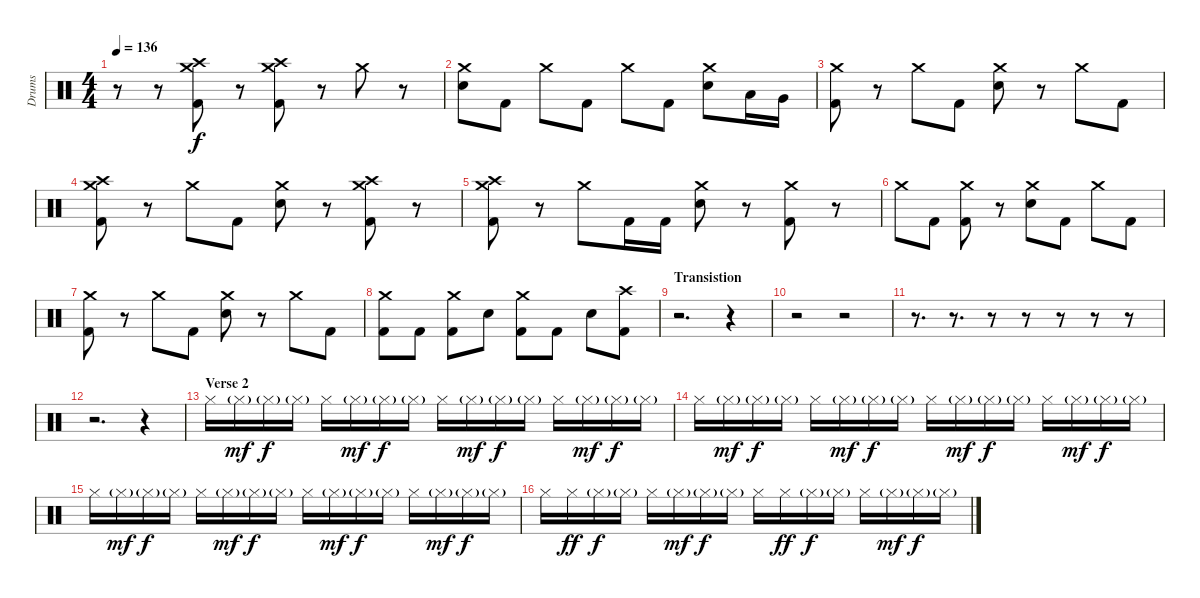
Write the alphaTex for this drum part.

\track ("Drums" "Drums") {instrument percussion}
\staff {score}
\articulation defaults
\ts (4 4)
\tempo 136
\clef neutral
\ks c
r.8{dy f} r.8 ("Crash medium (hit)" "Crash high (hit)" "Kick (hit) 2").8 r.8 ("Crash medium (hit)" "Crash high (hit)" "Kick (hit) 2").8 r.8 "Crash medium (hit)".8 r.8 |
("Crash medium (hit)" "Electric Snare (hit)").8 "Kick (hit) 2".8 "Crash medium (hit)".8 "Kick (hit) 2".8 "Crash medium (hit)".8 "Kick (hit) 2".8 ("Crash medium (hit)" "Electric Snare (hit)").8 "Low Tom (hit)".16 "Very Low Tom (hit)".16 |
("Crash medium (hit)" "Kick (hit) 2").8 r.8 "Crash medium (hit)".8 "Kick (hit) 2".8 ("Crash medium (hit)" "Electric Snare (hit)").8 r.8 "Crash medium (hit)".8 "Kick (hit) 2".8 |
("Crash medium (hit)" "Crash high (hit)" "Kick (hit) 2").8 r.8 "Crash medium (hit)".8 "Kick (hit) 2".8 ("Crash medium (hit)" "Electric Snare (hit)").8 r.8 ("Crash medium (hit)" "Crash high (hit)" "Kick (hit) 2").8 r.8 |
("Crash medium (hit)" "Crash high (hit)" "Kick (hit) 2").8 r.8 "Crash medium (hit)".8 "Kick (hit) 2".16 "Kick (hit) 2".16 ("Crash medium (hit)" "Electric Snare (hit)").8 r.8 ("Crash medium (hit)" "Kick (hit) 2").8 r.8 |
"Crash medium (hit)".8 "Kick (hit) 2".8 ("Crash medium (hit)" "Kick (hit) 2").8 r.8 ("Crash medium (hit)" "Electric Snare (hit)").8 "Kick (hit) 2".8 "Crash medium (hit)".8 "Kick (hit) 2".8 |
("Crash medium (hit)" "Kick (hit) 2").8 r.8 "Crash medium (hit)".8 "Kick (hit) 2".8 ("Crash medium (hit)" "Electric Snare (hit)").8 r.8 "Crash medium (hit)".8 "Kick (hit) 2".8 |
("Crash medium (hit)" "Kick (hit) 2").8 "Kick (hit) 2".8 ("Crash medium (hit)" "Kick (hit) 2").8 "Electric Snare (hit)".8 ("Crash medium (hit)" "Kick (hit) 2").8 "Kick (hit) 2".8 "Electric Snare (hit)".8 ("Crash high (hit)" "Kick (hit) 2").8 |
\section ("" "Transistion")
r.2{d} r.4 |
r.2 r.2 |
r.8{d} r.8{d} r.8 r.8 r.8 r.8 r.8 |
r.2{d} r.4 |
\section ("" "Verse 2")
"Hi-Hat (closed)".16 "Hi-Hat (closed)"{g}.16{dy mf} "Hi-Hat (closed)"{g}.16{dy f} "Hi-Hat (closed)"{g}.16 "Hi-Hat (closed)".16 "Hi-Hat (closed)"{g}.16{dy mf} "Hi-Hat (closed)"{g}.16{dy f} "Hi-Hat (closed)"{g}.16 "Hi-Hat (closed)".16 "Hi-Hat (closed)"{g}.16{dy mf} "Hi-Hat (closed)"{g}.16{dy f} "Hi-Hat (closed)"{g}.16 "Hi-Hat (closed)".16 "Hi-Hat (closed)"{g}.16{dy mf} "Hi-Hat (closed)"{g}.16{dy f} "Hi-Hat (closed)"{g}.16 |
"Hi-Hat (closed)".16 "Hi-Hat (closed)"{g}.16{dy mf} "Hi-Hat (closed)"{g}.16{dy f} "Hi-Hat (closed)"{g}.16 "Hi-Hat (closed)".16 "Hi-Hat (closed)"{g}.16{dy mf} "Hi-Hat (closed)"{g}.16{dy f} "Hi-Hat (closed)"{g}.16 "Hi-Hat (closed)".16 "Hi-Hat (closed)"{g}.16{dy mf} "Hi-Hat (closed)"{g}.16{dy f} "Hi-Hat (closed)"{g}.16 "Hi-Hat (closed)".16 "Hi-Hat (closed)"{g}.16{dy mf} "Hi-Hat (closed)"{g}.16{dy f} "Hi-Hat (closed)"{g}.16 |
"Hi-Hat (closed)".16 "Hi-Hat (closed)"{g}.16{dy mf} "Hi-Hat (closed)"{g}.16{dy f} "Hi-Hat (closed)"{g}.16 "Hi-Hat (closed)".16 "Hi-Hat (closed)"{g}.16{dy mf} "Hi-Hat (closed)"{g}.16{dy f} "Hi-Hat (closed)"{g}.16 "Hi-Hat (closed)".16 "Hi-Hat (closed)"{g}.16{dy mf} "Hi-Hat (closed)"{g}.16{dy f} "Hi-Hat (closed)"{g}.16 "Hi-Hat (closed)".16 "Hi-Hat (closed)"{g}.16{dy mf} "Hi-Hat (closed)"{g}.16{dy f} "Hi-Hat (closed)"{g}.16 |
"Hi-Hat (closed)".16 "Hi-Hat (closed)".16{dy ff} "Hi-Hat (closed)"{g}.16{dy f} "Hi-Hat (closed)"{g}.16 "Hi-Hat (closed)".16 "Hi-Hat (closed)"{g}.16{dy mf} "Hi-Hat (closed)"{g}.16{dy f} "Hi-Hat (closed)"{g}.16 "Hi-Hat (closed)".16 "Hi-Hat (closed)".16{dy ff} "Hi-Hat (closed)"{g}.16{dy f} "Hi-Hat (closed)"{g}.16 "Hi-Hat (closed)".16 "Hi-Hat (closed)"{g}.16{dy mf} "Hi-Hat (closed)"{g}.16{dy f} "Hi-Hat (closed)"{g}.16
